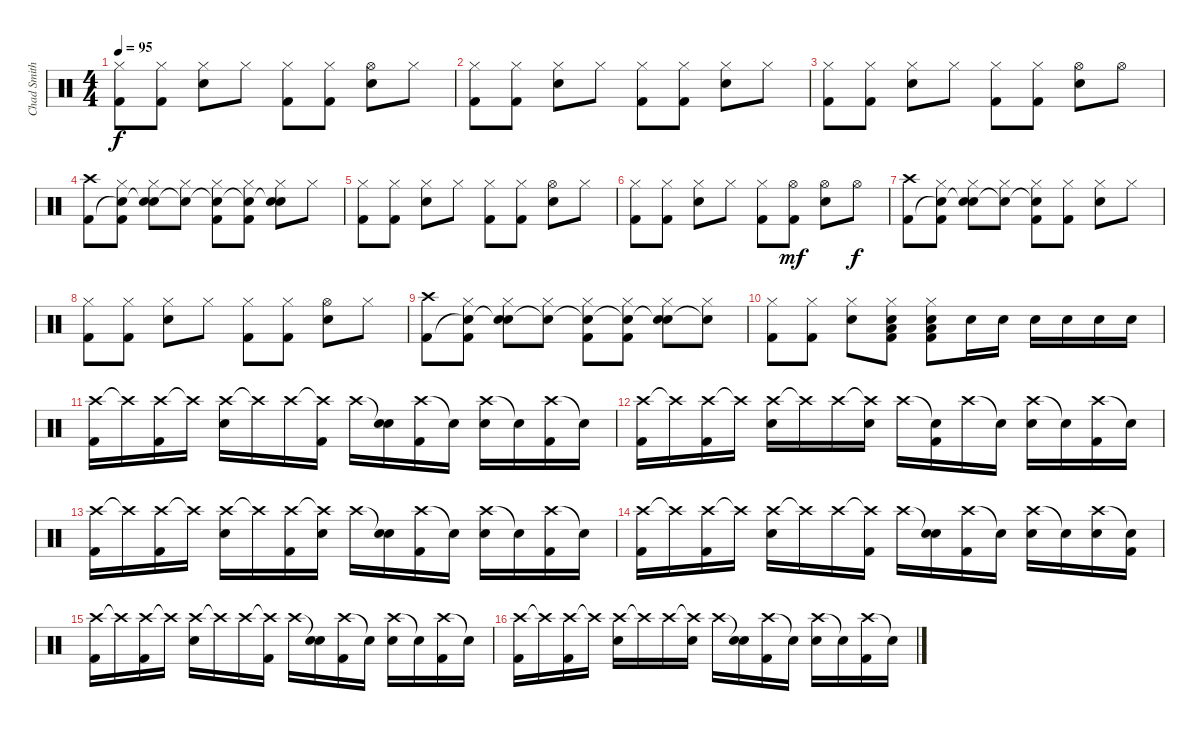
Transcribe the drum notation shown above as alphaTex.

\track ("Chad Smith" "Chad Smith") {instrument percussion}
\staff {score}
\articulation defaults
\ts (4 4)
\tempo 95
\clef neutral
\ks c
("Hi-Hat (closed)" "Kick (hit) 2").8{dy f} ("Hi-Hat (closed)" "Kick (hit) 2").8 ("Hi-Hat (closed)" "Snare (hit) 2").8 "Hi-Hat (closed)".8 ("Hi-Hat (closed)" "Kick (hit) 2").8 ("Hi-Hat (closed)" "Kick (hit) 2").8 ("Hi-Hat (open)" "Snare (hit) 2").8 "Hi-Hat (closed)".8 |
("Hi-Hat (closed)" "Kick (hit) 2").8 ("Hi-Hat (closed)" "Kick (hit) 2").8 ("Hi-Hat (closed)" "Snare (hit) 2").8 "Hi-Hat (closed)".8 ("Hi-Hat (closed)" "Kick (hit) 2").8 ("Hi-Hat (closed)" "Kick (hit) 2").8 ("Hi-Hat (closed)" "Snare (hit) 2").8 "Hi-Hat (closed)".8 |
("Hi-Hat (closed)" "Kick (hit) 2").8 ("Hi-Hat (closed)" "Kick (hit) 2").8 ("Hi-Hat (closed)" "Snare (hit) 2").8 "Hi-Hat (closed)".8 ("Hi-Hat (closed)" "Kick (hit) 2").8 ("Hi-Hat (closed)" "Kick (hit) 2").8 ("Hi-Hat (open)" "Snare (hit) 2").8 "Hi-Hat (open)".8 |
("Crash high (hit)" "Kick (hit) 2").8 ("Hi-Hat (closed)" "Snare (hit)"{t} "Kick (hit) 2").8 ("Hi-Hat (closed)" "Snare (hit)"{t} "Snare (hit) 2").8 ("Hi-Hat (closed)" "Snare (hit)"{t}).8 ("Hi-Hat (closed)" "Snare (hit)"{t} "Kick (hit) 2").8 ("Hi-Hat (closed)" "Snare (hit)"{t} "Kick (hit) 2").8 ("Hi-Hat (closed)" "Snare (hit)"{t} "Snare (hit) 2").8 "Hi-Hat (closed)".8 |
("Hi-Hat (closed)" "Kick (hit) 2").8 ("Hi-Hat (closed)" "Kick (hit) 2").8 ("Hi-Hat (closed)" "Snare (hit) 2").8 "Hi-Hat (closed)".8 ("Hi-Hat (closed)" "Kick (hit) 2").8 ("Hi-Hat (closed)" "Kick (hit) 2").8 ("Hi-Hat (open)" "Snare (hit) 2").8 "Hi-Hat (closed)".8 |
("Hi-Hat (closed)" "Kick (hit) 2").8 ("Hi-Hat (closed)" "Kick (hit) 2").8 ("Hi-Hat (closed)" "Snare (hit) 2").8 "Hi-Hat (closed)".8 ("Hi-Hat (closed)" "Kick (hit) 2").8 ("Hi-Hat (open)" "Kick (hit) 2").8{dy mf} ("Hi-Hat (open)" "Snare (hit) 2").8 "Hi-Hat (open)".8{dy f} |
("Crash high (hit)" "Kick (hit) 2").8 ("Hi-Hat (closed)" "Snare (hit)"{t} "Kick (hit) 2").8 ("Hi-Hat (closed)" "Snare (hit)"{t} "Snare (hit) 2").8 ("Hi-Hat (closed)" "Snare (hit)"{t}).8 ("Hi-Hat (closed)" "Snare (hit)"{t} "Kick (hit) 2").8 ("Hi-Hat (closed)" "Kick (hit) 2").8 ("Hi-Hat (closed)" "Snare (hit) 2").8 "Hi-Hat (closed)".8 |
("Hi-Hat (closed)" "Kick (hit) 2").8 ("Hi-Hat (closed)" "Kick (hit) 2").8 ("Hi-Hat (closed)" "Snare (hit) 2").8 "Hi-Hat (closed)".8 ("Hi-Hat (closed)" "Kick (hit) 2").8 ("Hi-Hat (closed)" "Kick (hit) 2").8 ("Hi-Hat (open)" "Snare (hit) 2").8 "Hi-Hat (closed)".8 |
("Crash high (hit)" "Kick (hit) 2").8 ("Hi-Hat (closed)" "Snare (hit)"{t} "Kick (hit) 2").8 ("Hi-Hat (closed)" "Snare (hit)"{t} "Snare (hit) 2").8 ("Hi-Hat (closed)" "Snare (hit)"{t}).8 ("Hi-Hat (closed)" "Snare (hit)"{t} "Kick (hit) 2").8 ("Hi-Hat (closed)" "Snare (hit)"{t} "Kick (hit) 2").8 ("Hi-Hat (closed)" "Snare (hit)"{t} "Snare (hit) 2").8 ("Hi-Hat (closed)" "Snare (hit)"{t}).8 |
("Hi-Hat (closed)" "Kick (hit) 2").8 ("Hi-Hat (closed)" "Kick (hit) 2").8 ("Hi-Hat (closed)" "Snare (hit) 2").8 ("Hi-Hat (closed)" "Snare (hit) 2" "Low Floor Tom (hit)" "Kick (hit) 2").8 ("Hi-Hat (closed)" "Snare (hit) 2" "Low Floor Tom (hit)" "Kick (hit) 2").8 "Snare (hit) 2".16 "Snare (hit) 2".16 "Snare (hit) 2".16 "Snare (hit) 2".16 "Snare (hit) 2".16 "Snare (hit) 2".16 |
("Crash high (hit)" "Kick (hit) 2").16 "Crash high (hit)"{t}.16 ("Crash high (hit)" "Kick (hit) 2").16 "Crash high (hit)"{t}.16 ("Crash high (hit)" "Snare (hit) 2").16 "Crash high (hit)"{t}.16 "Crash high (hit)".16 ("Crash high (hit)"{t} "Kick (hit) 2").16 "Crash high (hit)".16 ("Snare (hit)"{t} "Snare (hit) 2").16 ("Crash high (hit)" "Kick (hit) 2").16 "Snare (hit)"{t}.16 ("Crash high (hit)" "Snare (hit) 2").16 "Snare (hit)"{t}.16 ("Crash high (hit)" "Kick (hit) 2").16 "Snare (hit)"{t}.16 |
("Crash high (hit)" "Kick (hit) 2").16 "Crash high (hit)"{t}.16 ("Crash high (hit)" "Kick (hit) 2").16 "Crash high (hit)"{t}.16 ("Crash high (hit)" "Snare (hit) 2").16 "Crash high (hit)"{t}.16 "Crash high (hit)".16 ("Crash high (hit)"{t} "Snare (hit) 2").16 "Crash high (hit)".16 ("Snare (hit)"{t} "Kick (hit) 2").16 "Crash high (hit)".16 "Snare (hit)"{t}.16 ("Crash high (hit)" "Snare (hit) 2").16 "Snare (hit)"{t}.16 ("Crash high (hit)" "Kick (hit) 2").16 "Snare (hit)"{t}.16 |
("Crash high (hit)" "Kick (hit) 2").16 "Crash high (hit)"{t}.16 ("Crash high (hit)" "Kick (hit) 2").16 "Crash high (hit)"{t}.16 ("Crash high (hit)" "Snare (hit) 2").16 "Crash high (hit)"{t}.16 ("Crash high (hit)" "Kick (hit) 2").16 ("Crash high (hit)"{t} "Snare (hit) 2").16 "Crash high (hit)".16 ("Snare (hit)"{t} "Snare (hit) 2").16 ("Crash high (hit)" "Kick (hit) 2").16 "Snare (hit)"{t}.16 ("Crash high (hit)" "Snare (hit) 2").16 "Snare (hit)"{t}.16 ("Crash high (hit)" "Kick (hit) 2").16 "Snare (hit)"{t}.16 |
("Crash high (hit)" "Kick (hit) 2").16 "Crash high (hit)"{t}.16 ("Crash high (hit)" "Kick (hit) 2").16 "Crash high (hit)"{t}.16 ("Crash high (hit)" "Snare (hit) 2").16 "Crash high (hit)"{t}.16 "Crash high (hit)".16 ("Crash high (hit)"{t} "Kick (hit) 2").16 "Crash high (hit)".16 ("Snare (hit)"{t} "Snare (hit) 2").16 ("Crash high (hit)" "Kick (hit) 2").16 "Snare (hit)"{t}.16 ("Crash high (hit)" "Snare (hit) 2").16 "Snare (hit)"{t}.16 ("Crash high (hit)" "Snare (hit) 2").16 ("Snare (hit)"{t} "Kick (hit) 2").16 |
("Crash high (hit)" "Kick (hit) 2").16 "Crash high (hit)"{t}.16 ("Crash high (hit)" "Kick (hit) 2").16 "Crash high (hit)"{t}.16 ("Crash high (hit)" "Snare (hit) 2").16 "Crash high (hit)"{t}.16 "Crash high (hit)".16 ("Crash high (hit)"{t} "Kick (hit) 2").16 "Crash high (hit)".16 ("Snare (hit)"{t} "Snare (hit) 2").16 ("Crash high (hit)" "Kick (hit) 2").16 "Snare (hit)"{t}.16 ("Crash high (hit)" "Snare (hit) 2").16 "Snare (hit)"{t}.16 ("Crash high (hit)" "Kick (hit) 2").16 "Snare (hit)"{t}.16 |
("Crash high (hit)" "Kick (hit) 2").16 "Crash high (hit)"{t}.16 ("Crash high (hit)" "Kick (hit) 2").16 "Crash high (hit)"{t}.16 ("Crash high (hit)" "Snare (hit) 2").16 "Crash high (hit)"{t}.16 "Crash high (hit)".16 ("Crash high (hit)"{t} "Snare (hit) 2").16 "Crash high (hit)".16 ("Snare (hit)"{t} "Snare (hit) 2").16 ("Crash high (hit)" "Kick (hit) 2").16 "Snare (hit)"{t}.16 ("Crash high (hit)" "Snare (hit) 2").16 "Snare (hit)"{t}.16 ("Crash high (hit)" "Kick (hit) 2").16 "Snare (hit)"{t}.16
